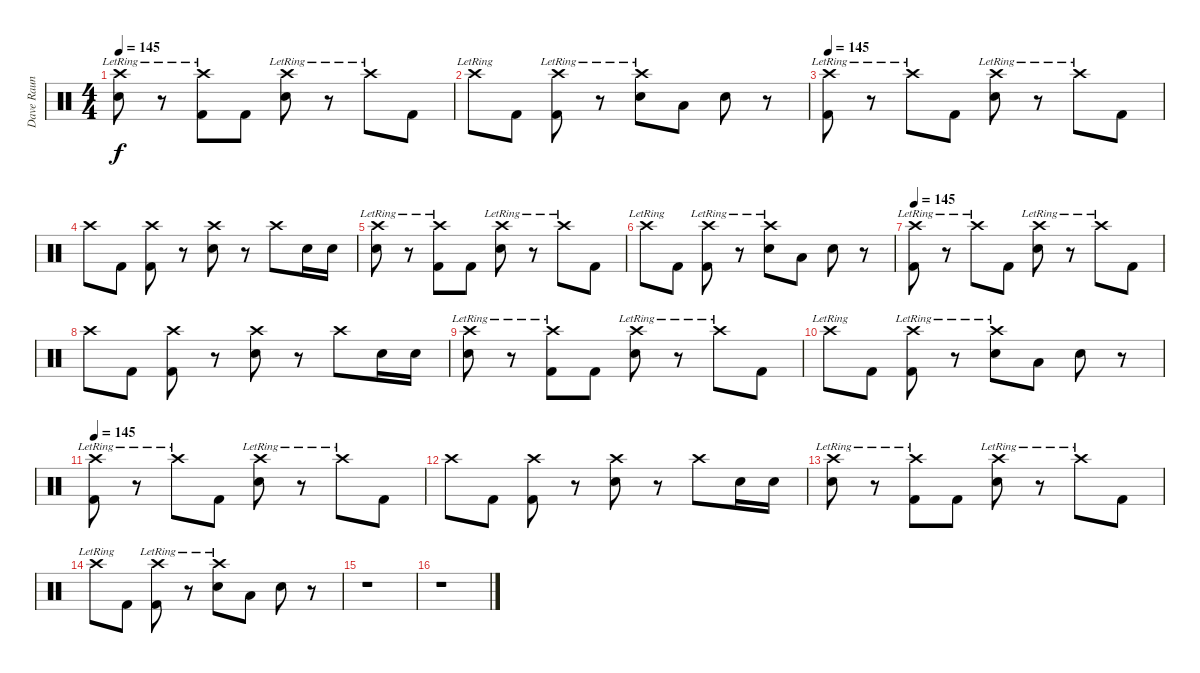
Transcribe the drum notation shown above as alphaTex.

\track ("Dave Raun" "Dave Raun") {instrument percussion}
\staff {score}
\articulation defaults
\ts (4 4)
\tempo 145
\clef neutral
\ks c
("Crash high (hit)"{lr} "Electric Snare (hit)").8{dy f} r.8 ("Crash high (hit)"{lr} "Kick (hit) 2").8 "Kick (hit) 2".8 ("Crash high (hit)"{lr} "Electric Snare (hit)").8 r.8 "Crash high (hit)"{lr}.8 "Kick (hit) 2".8 |
"Crash high (hit)"{lr}.8 "Kick (hit) 2".8 ("Crash high (hit)"{lr} "Kick (hit) 2").8 r.8 ("Crash high (hit)"{lr} "Electric Snare (hit)").8 "Low Floor Tom (hit)".8 "Electric Snare (hit)".8 r.8 |
\tempo 145
("Crash high (hit)"{lr} "Kick (hit) 2").8 r.8 "Crash high (hit)"{lr}.8 "Kick (hit) 2".8 ("Crash high (hit)"{lr} "Electric Snare (hit)").8 r.8 "Crash high (hit)"{lr}.8 "Kick (hit) 2".8 |
"Crash high (hit)".8 "Kick (hit) 2".8 ("Crash high (hit)" "Kick (hit) 2").8 r.8 ("Crash high (hit)" "Electric Snare (hit)").8 r.8 "Crash high (hit)".8 "Electric Snare (hit)".16 "Electric Snare (hit)".16 |
("Crash high (hit)"{lr} "Electric Snare (hit)").8 r.8 ("Crash high (hit)"{lr} "Kick (hit) 2").8 "Kick (hit) 2".8 ("Crash high (hit)"{lr} "Electric Snare (hit)").8 r.8 "Crash high (hit)"{lr}.8 "Kick (hit) 2".8 |
"Crash high (hit)"{lr}.8 "Kick (hit) 2".8 ("Crash high (hit)"{lr} "Kick (hit) 2").8 r.8 ("Crash high (hit)"{lr} "Electric Snare (hit)").8 "Low Floor Tom (hit)".8 "Electric Snare (hit)".8 r.8 |
\tempo 145
("Crash high (hit)"{lr} "Kick (hit) 2").8 r.8 "Crash high (hit)"{lr}.8 "Kick (hit) 2".8 ("Crash high (hit)"{lr} "Electric Snare (hit)").8 r.8 "Crash high (hit)"{lr}.8 "Kick (hit) 2".8 |
"Crash high (hit)".8 "Kick (hit) 2".8 ("Crash high (hit)" "Kick (hit) 2").8 r.8 ("Crash high (hit)" "Electric Snare (hit)").8 r.8 "Crash high (hit)".8 "Electric Snare (hit)".16 "Electric Snare (hit)".16 |
("Crash high (hit)"{lr} "Electric Snare (hit)").8 r.8 ("Crash high (hit)"{lr} "Kick (hit) 2").8 "Kick (hit) 2".8 ("Crash high (hit)"{lr} "Electric Snare (hit)").8 r.8 "Crash high (hit)"{lr}.8 "Kick (hit) 2".8 |
"Crash high (hit)"{lr}.8 "Kick (hit) 2".8 ("Crash high (hit)"{lr} "Kick (hit) 2").8 r.8 ("Crash high (hit)"{lr} "Electric Snare (hit)").8 "Low Floor Tom (hit)".8 "Electric Snare (hit)".8 r.8 |
\tempo 145
("Crash high (hit)"{lr} "Kick (hit) 2").8 r.8 "Crash high (hit)"{lr}.8 "Kick (hit) 2".8 ("Crash high (hit)"{lr} "Electric Snare (hit)").8 r.8 "Crash high (hit)"{lr}.8 "Kick (hit) 2".8 |
"Crash high (hit)".8 "Kick (hit) 2".8 ("Crash high (hit)" "Kick (hit) 2").8 r.8 ("Crash high (hit)" "Electric Snare (hit)").8 r.8 "Crash high (hit)".8 "Electric Snare (hit)".16 "Electric Snare (hit)".16 |
("Crash high (hit)"{lr} "Electric Snare (hit)").8 r.8 ("Crash high (hit)"{lr} "Kick (hit) 2").8 "Kick (hit) 2".8 ("Crash high (hit)"{lr} "Electric Snare (hit)").8 r.8 "Crash high (hit)"{lr}.8 "Kick (hit) 2".8 |
"Crash high (hit)"{lr}.8 "Kick (hit) 2".8 ("Crash high (hit)"{lr} "Kick (hit) 2").8 r.8 ("Crash high (hit)"{lr} "Electric Snare (hit)").8 "Low Floor Tom (hit)".8 "Electric Snare (hit)".8 r.8 |
r.1 |
r.1
